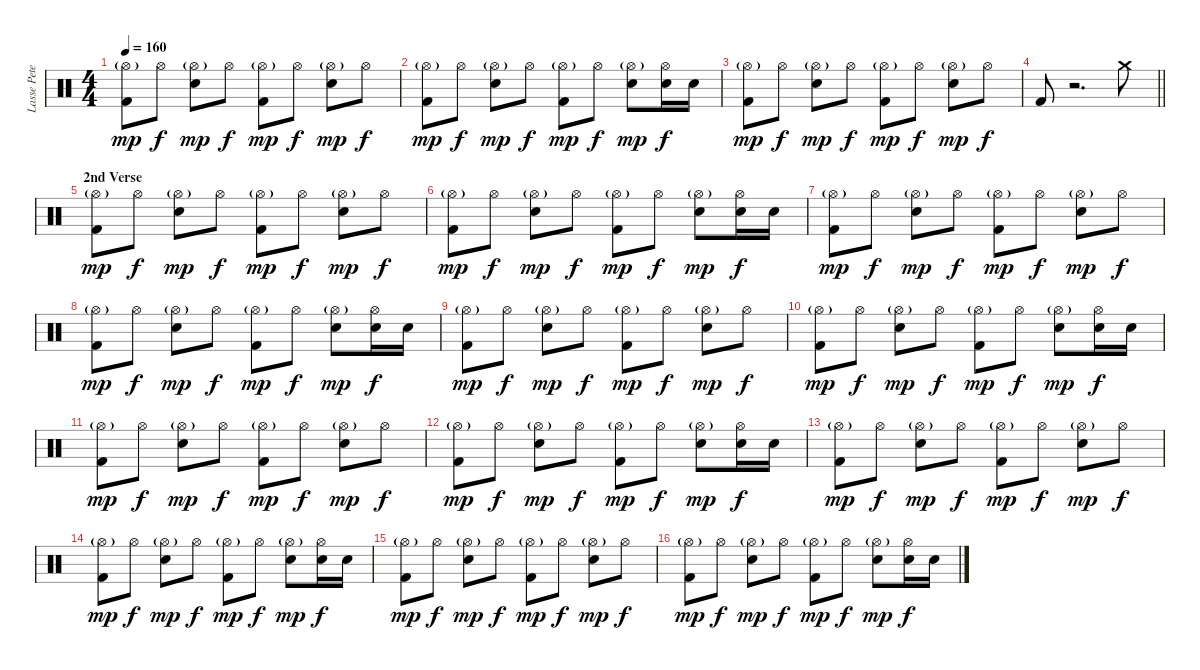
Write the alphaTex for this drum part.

\track ("Lasse Petersen - Drums" "Lasse Pete") {instrument percussion}
\staff {score}
\articulation defaults
\ts (4 4)
\tempo 160
\clef neutral
\ks c
("Kick (hit) 2" "Hi-Hat (open)"{g}).8{dy mp} "Hi-Hat (open)".8{dy f} ("Electric Snare (hit)" "Hi-Hat (open)"{g}).8{dy mp} "Hi-Hat (open)".8{dy f} ("Kick (hit) 2" "Hi-Hat (open)"{g}).8{dy mp} "Hi-Hat (open)".8{dy f} ("Electric Snare (hit)" "Hi-Hat (open)"{g}).8{dy mp} "Hi-Hat (open)".8{dy f} |
("Kick (hit) 2" "Hi-Hat (open)"{g}).8{dy mp} "Hi-Hat (open)".8{dy f} ("Electric Snare (hit)" "Hi-Hat (open)"{g}).8{dy mp} "Hi-Hat (open)".8{dy f} ("Kick (hit) 2" "Hi-Hat (open)"{g}).8{dy mp} "Hi-Hat (open)".8{dy f} ("Electric Snare (hit)" "Hi-Hat (open)"{g}).8{dy mp} ("Electric Snare (hit)" "Hi-Hat (open)").16{dy f} "Electric Snare (hit)".16 |
("Kick (hit) 2" "Hi-Hat (open)"{g}).8{dy mp} "Hi-Hat (open)".8{dy f} ("Electric Snare (hit)" "Hi-Hat (open)"{g}).8{dy mp} "Hi-Hat (open)".8{dy f} ("Kick (hit) 2" "Hi-Hat (open)"{g}).8{dy mp} "Hi-Hat (open)".8{dy f} ("Electric Snare (hit)" "Hi-Hat (open)"{g}).8{dy mp} "Hi-Hat (open)".8{dy f} |
\barLineRight lightlight "Kick (hit) 2".8
r.2{d} "Crash medium (hit)".8 |
\section ("" "2nd Verse")
("Kick (hit) 2" "Hi-Hat (open)"{g}).8{dy mp} "Hi-Hat (open)".8{dy f} ("Electric Snare (hit)" "Hi-Hat (open)"{g}).8{dy mp} "Hi-Hat (open)".8{dy f} ("Kick (hit) 2" "Hi-Hat (open)"{g}).8{dy mp} "Hi-Hat (open)".8{dy f} ("Electric Snare (hit)" "Hi-Hat (open)"{g}).8{dy mp} "Hi-Hat (open)".8{dy f} |
("Kick (hit) 2" "Hi-Hat (open)"{g}).8{dy mp} "Hi-Hat (open)".8{dy f} ("Electric Snare (hit)" "Hi-Hat (open)"{g}).8{dy mp} "Hi-Hat (open)".8{dy f} ("Kick (hit) 2" "Hi-Hat (open)"{g}).8{dy mp} "Hi-Hat (open)".8{dy f} ("Electric Snare (hit)" "Hi-Hat (open)"{g}).8{dy mp} ("Electric Snare (hit)" "Hi-Hat (open)").16{dy f} "Electric Snare (hit)".16 |
("Kick (hit) 2" "Hi-Hat (open)"{g}).8{dy mp} "Hi-Hat (open)".8{dy f} ("Electric Snare (hit)" "Hi-Hat (open)"{g}).8{dy mp} "Hi-Hat (open)".8{dy f} ("Kick (hit) 2" "Hi-Hat (open)"{g}).8{dy mp} "Hi-Hat (open)".8{dy f} ("Electric Snare (hit)" "Hi-Hat (open)"{g}).8{dy mp} "Hi-Hat (open)".8{dy f} |
("Kick (hit) 2" "Hi-Hat (open)"{g}).8{dy mp} "Hi-Hat (open)".8{dy f} ("Electric Snare (hit)" "Hi-Hat (open)"{g}).8{dy mp} "Hi-Hat (open)".8{dy f} ("Kick (hit) 2" "Hi-Hat (open)"{g}).8{dy mp} "Hi-Hat (open)".8{dy f} ("Electric Snare (hit)" "Hi-Hat (open)"{g}).8{dy mp} ("Electric Snare (hit)" "Hi-Hat (open)").16{dy f} "Electric Snare (hit)".16 |
("Kick (hit) 2" "Hi-Hat (open)"{g}).8{dy mp} "Hi-Hat (open)".8{dy f} ("Electric Snare (hit)" "Hi-Hat (open)"{g}).8{dy mp} "Hi-Hat (open)".8{dy f} ("Kick (hit) 2" "Hi-Hat (open)"{g}).8{dy mp} "Hi-Hat (open)".8{dy f} ("Electric Snare (hit)" "Hi-Hat (open)"{g}).8{dy mp} "Hi-Hat (open)".8{dy f} |
("Kick (hit) 2" "Hi-Hat (open)"{g}).8{dy mp} "Hi-Hat (open)".8{dy f} ("Electric Snare (hit)" "Hi-Hat (open)"{g}).8{dy mp} "Hi-Hat (open)".8{dy f} ("Kick (hit) 2" "Hi-Hat (open)"{g}).8{dy mp} "Hi-Hat (open)".8{dy f} ("Electric Snare (hit)" "Hi-Hat (open)"{g}).8{dy mp} ("Electric Snare (hit)" "Hi-Hat (open)").16{dy f} "Electric Snare (hit)".16 |
("Kick (hit) 2" "Hi-Hat (open)"{g}).8{dy mp} "Hi-Hat (open)".8{dy f} ("Electric Snare (hit)" "Hi-Hat (open)"{g}).8{dy mp} "Hi-Hat (open)".8{dy f} ("Kick (hit) 2" "Hi-Hat (open)"{g}).8{dy mp} "Hi-Hat (open)".8{dy f} ("Electric Snare (hit)" "Hi-Hat (open)"{g}).8{dy mp} "Hi-Hat (open)".8{dy f} |
("Kick (hit) 2" "Hi-Hat (open)"{g}).8{dy mp} "Hi-Hat (open)".8{dy f} ("Electric Snare (hit)" "Hi-Hat (open)"{g}).8{dy mp} "Hi-Hat (open)".8{dy f} ("Kick (hit) 2" "Hi-Hat (open)"{g}).8{dy mp} "Hi-Hat (open)".8{dy f} ("Electric Snare (hit)" "Hi-Hat (open)"{g}).8{dy mp} ("Electric Snare (hit)" "Hi-Hat (open)").16{dy f} "Electric Snare (hit)".16 |
("Kick (hit) 2" "Hi-Hat (open)"{g}).8{dy mp} "Hi-Hat (open)".8{dy f} ("Electric Snare (hit)" "Hi-Hat (open)"{g}).8{dy mp} "Hi-Hat (open)".8{dy f} ("Kick (hit) 2" "Hi-Hat (open)"{g}).8{dy mp} "Hi-Hat (open)".8{dy f} ("Electric Snare (hit)" "Hi-Hat (open)"{g}).8{dy mp} "Hi-Hat (open)".8{dy f} |
("Kick (hit) 2" "Hi-Hat (open)"{g}).8{dy mp} "Hi-Hat (open)".8{dy f} ("Electric Snare (hit)" "Hi-Hat (open)"{g}).8{dy mp} "Hi-Hat (open)".8{dy f} ("Kick (hit) 2" "Hi-Hat (open)"{g}).8{dy mp} "Hi-Hat (open)".8{dy f} ("Electric Snare (hit)" "Hi-Hat (open)"{g}).8{dy mp} ("Electric Snare (hit)" "Hi-Hat (open)").16{dy f} "Electric Snare (hit)".16 |
("Kick (hit) 2" "Hi-Hat (open)"{g}).8{dy mp} "Hi-Hat (open)".8{dy f} ("Electric Snare (hit)" "Hi-Hat (open)"{g}).8{dy mp} "Hi-Hat (open)".8{dy f} ("Kick (hit) 2" "Hi-Hat (open)"{g}).8{dy mp} "Hi-Hat (open)".8{dy f} ("Electric Snare (hit)" "Hi-Hat (open)"{g}).8{dy mp} "Hi-Hat (open)".8{dy f} |
("Kick (hit) 2" "Hi-Hat (open)"{g}).8{dy mp} "Hi-Hat (open)".8{dy f} ("Electric Snare (hit)" "Hi-Hat (open)"{g}).8{dy mp} "Hi-Hat (open)".8{dy f} ("Kick (hit) 2" "Hi-Hat (open)"{g}).8{dy mp} "Hi-Hat (open)".8{dy f} ("Electric Snare (hit)" "Hi-Hat (open)"{g}).8{dy mp} ("Electric Snare (hit)" "Hi-Hat (open)").16{dy f} "Electric Snare (hit)".16
